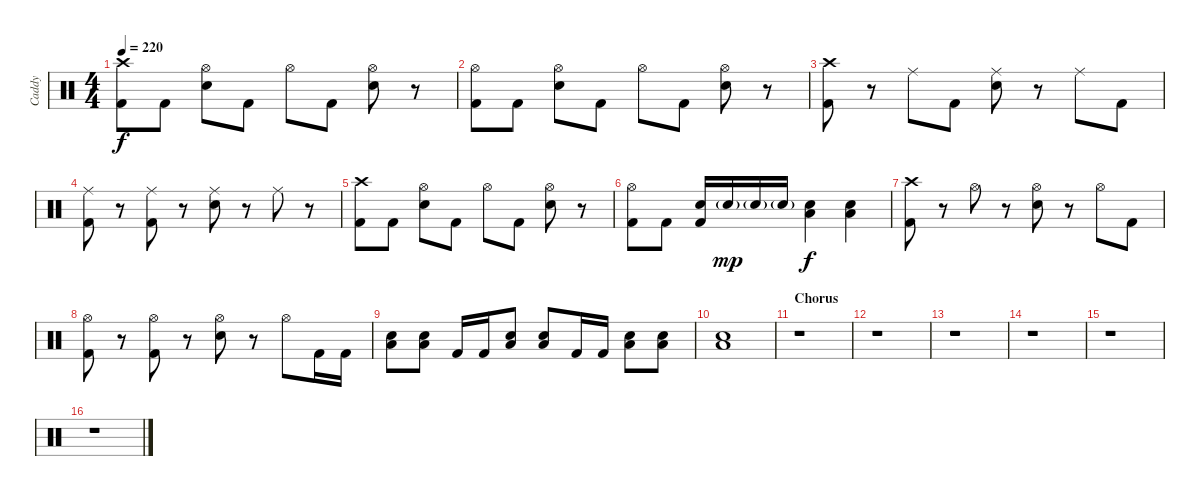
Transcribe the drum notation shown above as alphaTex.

\track ("Caddy" "Caddy") {instrument percussion}
\staff {score}
\articulation defaults
\ts (4 4)
\tempo 220
\clef neutral
\ks c
("Crash high (hit)" "Kick (hit) 2").8{dy f} "Kick (hit) 2".8 ("Hi-Hat (open)" "Electric Snare (hit)").8 "Kick (hit) 2".8 "Hi-Hat (open)".8 "Kick (hit) 2".8 ("Hi-Hat (open)" "Electric Snare (hit)").8 r.8 |
("Hi-Hat (open)" "Kick (hit) 2").8 "Kick (hit) 2".8 ("Hi-Hat (open)" "Electric Snare (hit)").8 "Kick (hit) 2".8 "Hi-Hat (open)".8 "Kick (hit) 2".8 ("Hi-Hat (open)" "Electric Snare (hit)").8 r.8 |
("Crash high (hit)" "Kick (hit) 2").8 r.8 "Ride (middle)".8 "Kick (hit) 2".8 ("Ride (middle)" "Electric Snare (hit)").8 r.8 "Ride (middle)".8 "Kick (hit) 2".8 |
("Ride (middle)" "Kick (hit) 2").8 r.8 ("Ride (middle)" "Kick (hit) 2").8 r.8 ("Ride (middle)" "Electric Snare (hit)").8 r.8 "Ride (middle)".8 r.8 |
("Crash high (hit)" "Kick (hit) 2").8 "Kick (hit) 2".8 ("Hi-Hat (open)" "Electric Snare (hit)").8 "Kick (hit) 2".8 "Hi-Hat (open)".8 "Kick (hit) 2".8 ("Hi-Hat (open)" "Electric Snare (hit)").8 r.8 |
("Hi-Hat (open)" "Kick (hit) 2").8 "Kick (hit) 2".8 ("Electric Snare (hit)" "Kick (hit) 2").16 "Electric Snare (hit)"{g}.16{dy mp} "Electric Snare (hit)"{g}.16 "Electric Snare (hit)"{g}.16 ("Electric Snare (hit)" "Low Floor Tom (hit)").4{dy f} ("Electric Snare (hit)" "Low Floor Tom (hit)").4 |
("Crash high (hit)" "Kick (hit) 2").8 r.8 "Hi-Hat (open)".8 r.8 ("Hi-Hat (open)" "Electric Snare (hit)").8 r.8 "Hi-Hat (open)".8 "Kick (hit) 2".8 |
("Hi-Hat (open)" "Kick (hit) 2").8 r.8 ("Hi-Hat (open)" "Kick (hit) 2").8 r.8 ("Hi-Hat (open)" "Electric Snare (hit)").8 r.8 "Hi-Hat (open)".8 "Kick (hit) 2".16 "Kick (hit) 2".16 |
("Electric Snare (hit)" "Low Floor Tom (hit)").8 ("Electric Snare (hit)" "Low Floor Tom (hit)").8 "Kick (hit) 2".16 "Kick (hit) 2".16 ("Electric Snare (hit)" "Low Floor Tom (hit)").8 ("Electric Snare (hit)" "Low Floor Tom (hit)").8 "Kick (hit) 2".16 "Kick (hit) 2".16 ("Electric Snare (hit)" "Low Floor Tom (hit)").8 ("Electric Snare (hit)" "Low Floor Tom (hit)").8 |
("Electric Snare (hit)" "Low Floor Tom (hit)").1 |
\section ("" "Chorus")
r.1 |
r.1 |
r.1 |
r.1 |
r.1 |
r.1
